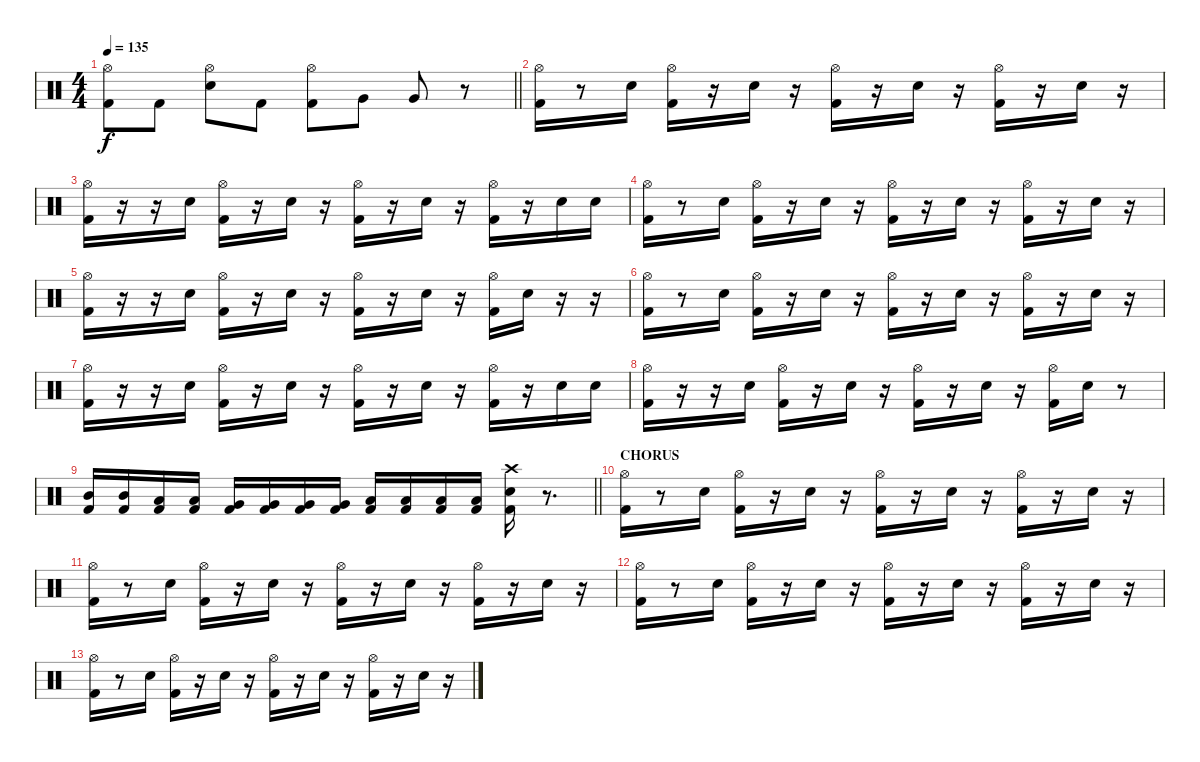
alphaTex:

\track "" {instrument percussion}
\staff {score}
\articulation defaults
\ts (4 4)
\tempo 135
\clef neutral
\barLineRight lightlight
\ks c
("Hi-Hat (open)" "Kick (hit) 2").8{dy f} "Kick (hit) 2".8 ("Hi-Hat (open)" "Electric Snare (hit)").8 "Kick (hit) 2".8 ("Hi-Hat (open)" "Kick (hit) 2").8 "Very Low Tom (hit)".8 "Very Low Tom (hit)".8 r.8 |
\section ("" "")
("Hi-Hat (open)" "Kick (hit) 2").16 r.8 "Electric Snare (hit)".16 ("Hi-Hat (open)" "Kick (hit) 2").16 r.16 "Electric Snare (hit)".16 r.16 ("Hi-Hat (open)" "Kick (hit) 2").16 r.16 "Electric Snare (hit)".16 r.16 ("Hi-Hat (open)" "Kick (hit) 2").16 r.16 "Electric Snare (hit)".16 r.16 |
("Hi-Hat (open)" "Kick (hit) 2").16 r.16 r.16 "Electric Snare (hit)".16 ("Hi-Hat (open)" "Kick (hit) 2").16 r.16 "Electric Snare (hit)".16 r.16 ("Hi-Hat (open)" "Kick (hit) 2").16 r.16 "Electric Snare (hit)".16 r.16 ("Hi-Hat (open)" "Kick (hit) 2").16 r.16 "Electric Snare (hit)".16 "Electric Snare (hit)".16 |
("Hi-Hat (open)" "Kick (hit) 2").16 r.8 "Electric Snare (hit)".16 ("Hi-Hat (open)" "Kick (hit) 2").16 r.16 "Electric Snare (hit)".16 r.16 ("Hi-Hat (open)" "Kick (hit) 2").16 r.16 "Electric Snare (hit)".16 r.16 ("Hi-Hat (open)" "Kick (hit) 2").16 r.16 "Electric Snare (hit)".16 r.16 |
("Hi-Hat (open)" "Kick (hit) 2").16 r.16 r.16 "Electric Snare (hit)".16 ("Hi-Hat (open)" "Kick (hit) 2").16 r.16 "Electric Snare (hit)".16 r.16 ("Hi-Hat (open)" "Kick (hit) 2").16 r.16 "Electric Snare (hit)".16 r.16 ("Hi-Hat (open)" "Kick (hit) 2").16 "Electric Snare (hit)".16 r.16 r.16 |
("Hi-Hat (open)" "Kick (hit) 2").16 r.8 "Electric Snare (hit)".16 ("Hi-Hat (open)" "Kick (hit) 2").16 r.16 "Electric Snare (hit)".16 r.16 ("Hi-Hat (open)" "Kick (hit) 2").16 r.16 "Electric Snare (hit)".16 r.16 ("Hi-Hat (open)" "Kick (hit) 2").16 r.16 "Electric Snare (hit)".16 r.16 |
("Hi-Hat (open)" "Kick (hit) 2").16 r.16 r.16 "Electric Snare (hit)".16 ("Hi-Hat (open)" "Kick (hit) 2").16 r.16 "Electric Snare (hit)".16 r.16 ("Hi-Hat (open)" "Kick (hit) 2").16 r.16 "Electric Snare (hit)".16 r.16 ("Hi-Hat (open)" "Kick (hit) 2").16 r.16 "Electric Snare (hit)".16 "Electric Snare (hit)".16 |
("Hi-Hat (open)" "Kick (hit) 2").16 r.16 r.16 "Electric Snare (hit)".16 ("Hi-Hat (open)" "Kick (hit) 2").16 r.16 "Electric Snare (hit)".16 r.16 ("Hi-Hat (open)" "Kick (hit) 2").16 r.16 "Electric Snare (hit)".16 r.16 ("Hi-Hat (open)" "Kick (hit) 2").16 "Electric Snare (hit)".16 r.8 |
\barLineRight lightlight
("Mid Tom (hit)" "Kick (hit) 2").16 ("Mid Tom (hit)" "Kick (hit) 2").16 ("Low Tom (hit)" "Kick (hit) 2").16 ("Low Tom (hit)" "Kick (hit) 2").16 ("Very Low Tom (hit)" "Kick (hit) 2").16 ("Very Low Tom (hit)" "Kick (hit) 2").16 ("Very Low Tom (hit)" "Kick (hit) 2").16 ("Very Low Tom (hit)" "Kick (hit) 2").16 ("Low Tom (hit)" "Kick (hit) 2").16 ("Low Tom (hit)" "Kick (hit) 2").16 ("Low Tom (hit)" "Kick (hit) 2").16 ("Low Tom (hit)" "Kick (hit) 2").16 ("Crash high (hit)" "Electric Snare (hit)" "Kick (hit) 2").16 r.8{d} |
\section ("" "CHORUS")
("Hi-Hat (open)" "Kick (hit) 2").16 r.8 "Electric Snare (hit)".16 ("Hi-Hat (open)" "Kick (hit) 2").16 r.16 "Electric Snare (hit)".16 r.16 ("Hi-Hat (open)" "Kick (hit) 2").16 r.16 "Electric Snare (hit)".16 r.16 ("Hi-Hat (open)" "Kick (hit) 2").16 r.16 "Electric Snare (hit)".16 r.16 |
("Hi-Hat (open)" "Kick (hit) 2").16 r.8 "Electric Snare (hit)".16 ("Hi-Hat (open)" "Kick (hit) 2").16 r.16 "Electric Snare (hit)".16 r.16 ("Hi-Hat (open)" "Kick (hit) 2").16 r.16 "Electric Snare (hit)".16 r.16 ("Hi-Hat (open)" "Kick (hit) 2").16 r.16 "Electric Snare (hit)".16 r.16 |
("Hi-Hat (open)" "Kick (hit) 2").16 r.8 "Electric Snare (hit)".16 ("Hi-Hat (open)" "Kick (hit) 2").16 r.16 "Electric Snare (hit)".16 r.16 ("Hi-Hat (open)" "Kick (hit) 2").16 r.16 "Electric Snare (hit)".16 r.16 ("Hi-Hat (open)" "Kick (hit) 2").16 r.16 "Electric Snare (hit)".16 r.16 |
("Hi-Hat (open)" "Kick (hit) 2").16 r.8 "Electric Snare (hit)".16 ("Hi-Hat (open)" "Kick (hit) 2").16 r.16 "Electric Snare (hit)".16 r.16 ("Hi-Hat (open)" "Kick (hit) 2").16 r.16 "Electric Snare (hit)".16 r.16 ("Hi-Hat (open)" "Kick (hit) 2").16 r.16 "Electric Snare (hit)".16 r.16
